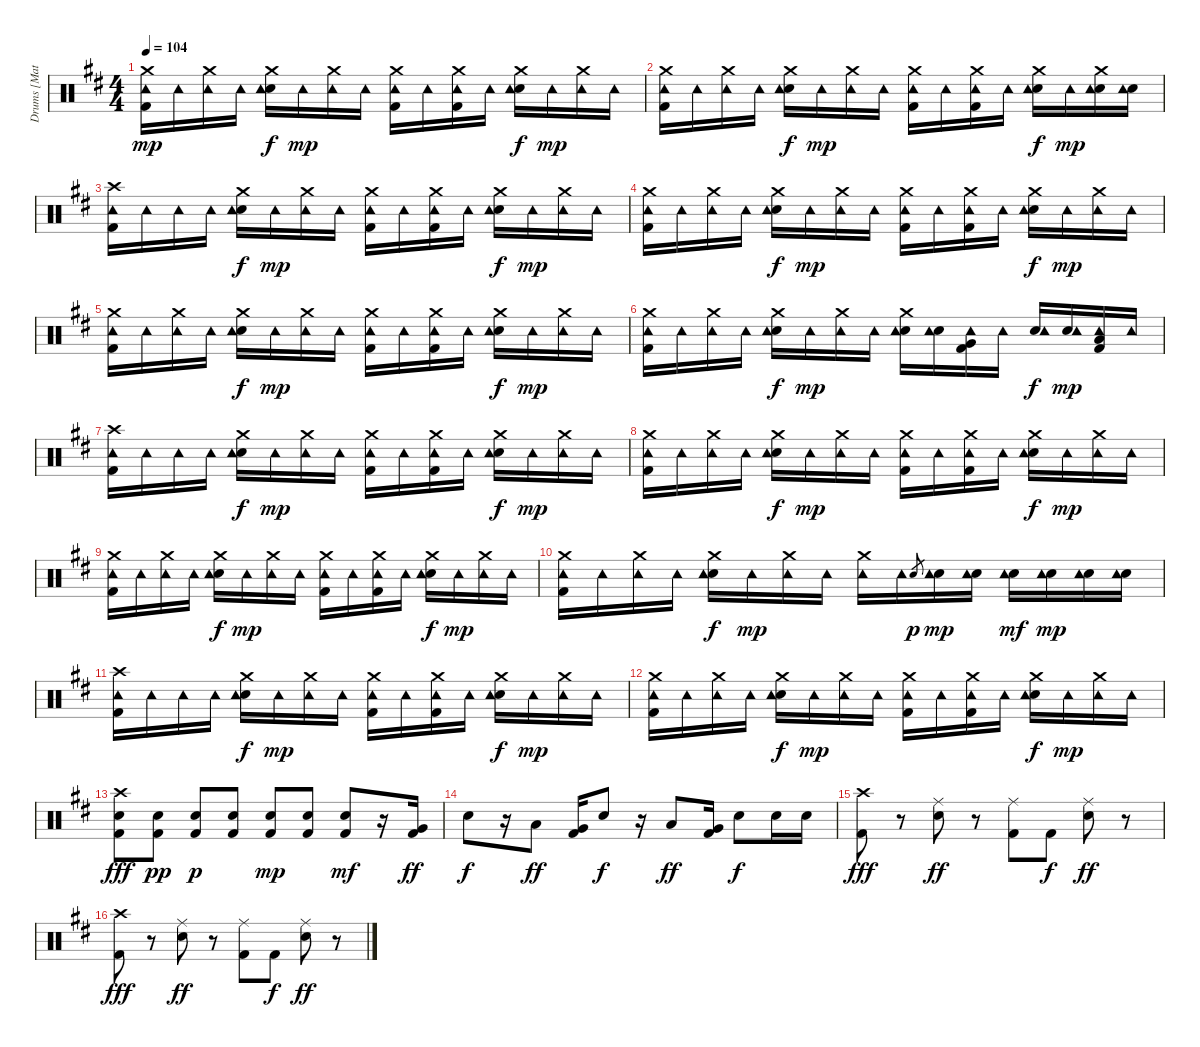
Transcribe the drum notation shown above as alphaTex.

\track ("Drums [Matt]" "Drums [Mat") {instrument percussion}
\staff {score}
\articulation defaults
\ts (4 4)
\tempo 104
\clef neutral
\ks d
("Crash medium (hit)" "Kick (hit) 2" "Tambourine (hit)").16{dy mp} "Tambourine (hit)".16 ("Crash medium (hit)" "Tambourine (hit)").16 "Tambourine (hit)".16 ("Crash medium (hit)" "Snare (hit) 2" "Tambourine (hit)").16{dy f} "Tambourine (hit)".16{dy mp} ("Crash medium (hit)" "Tambourine (hit)").16 "Tambourine (hit)".16 ("Crash medium (hit)" "Kick (hit) 2" "Tambourine (hit)").16 "Tambourine (hit)".16 ("Crash medium (hit)" "Kick (hit) 2" "Tambourine (hit)").16 "Tambourine (hit)".16 ("Crash medium (hit)" "Snare (hit) 2" "Tambourine (hit)").16{dy f} "Tambourine (hit)".16{dy mp} ("Crash medium (hit)" "Tambourine (hit)").16 "Tambourine (hit)".16 |
("Crash medium (hit)" "Kick (hit) 2" "Tambourine (hit)").16 "Tambourine (hit)".16 ("Crash medium (hit)" "Tambourine (hit)").16 "Tambourine (hit)".16 ("Crash medium (hit)" "Snare (hit) 2" "Tambourine (hit)").16{dy f} "Tambourine (hit)".16{dy mp} ("Crash medium (hit)" "Tambourine (hit)").16 "Tambourine (hit)".16 ("Crash medium (hit)" "Kick (hit) 2" "Tambourine (hit)").16 "Tambourine (hit)".16 ("Crash medium (hit)" "Kick (hit) 2" "Tambourine (hit)").16 "Tambourine (hit)".16 ("Crash medium (hit)" "Snare (hit) 2" "Tambourine (hit)").16{dy f} "Tambourine (hit)".16{dy mp} ("Crash medium (hit)" "Snare (hit) 2" "Tambourine (hit)").16 ("Snare (hit) 2" "Tambourine (hit)").16 |
("Kick (hit) 2" "Crash high (hit)" "Tambourine (hit)").16 "Tambourine (hit)".16 "Tambourine (hit)".16 "Tambourine (hit)".16 ("Crash medium (hit)" "Snare (hit) 2" "Tambourine (hit)").16{dy f} "Tambourine (hit)".16{dy mp} ("Crash medium (hit)" "Tambourine (hit)").16 "Tambourine (hit)".16 ("Crash medium (hit)" "Kick (hit) 2" "Tambourine (hit)").16 "Tambourine (hit)".16 ("Crash medium (hit)" "Kick (hit) 2" "Tambourine (hit)").16 "Tambourine (hit)".16 ("Crash medium (hit)" "Snare (hit) 2" "Tambourine (hit)").16{dy f} "Tambourine (hit)".16{dy mp} ("Crash medium (hit)" "Tambourine (hit)").16 "Tambourine (hit)".16 |
("Crash medium (hit)" "Kick (hit) 2" "Tambourine (hit)").16 "Tambourine (hit)".16 ("Crash medium (hit)" "Tambourine (hit)").16 "Tambourine (hit)".16 ("Crash medium (hit)" "Snare (hit) 2" "Tambourine (hit)").16{dy f} "Tambourine (hit)".16{dy mp} ("Crash medium (hit)" "Tambourine (hit)").16 "Tambourine (hit)".16 ("Crash medium (hit)" "Kick (hit) 2" "Tambourine (hit)").16 "Tambourine (hit)".16 ("Crash medium (hit)" "Kick (hit) 2" "Tambourine (hit)").16 "Tambourine (hit)".16 ("Crash medium (hit)" "Snare (hit) 2" "Tambourine (hit)").16{dy f} "Tambourine (hit)".16{dy mp} ("Crash medium (hit)" "Tambourine (hit)").16 "Tambourine (hit)".16 |
("Crash medium (hit)" "Kick (hit) 2" "Tambourine (hit)").16 "Tambourine (hit)".16 ("Crash medium (hit)" "Tambourine (hit)").16 "Tambourine (hit)".16 ("Crash medium (hit)" "Snare (hit) 2" "Tambourine (hit)").16{dy f} "Tambourine (hit)".16{dy mp} ("Crash medium (hit)" "Tambourine (hit)").16 "Tambourine (hit)".16 ("Crash medium (hit)" "Kick (hit) 2" "Tambourine (hit)").16 "Tambourine (hit)".16 ("Crash medium (hit)" "Kick (hit) 2" "Tambourine (hit)").16 "Tambourine (hit)".16 ("Crash medium (hit)" "Snare (hit) 2" "Tambourine (hit)").16{dy f} "Tambourine (hit)".16{dy mp} ("Crash medium (hit)" "Tambourine (hit)").16 "Tambourine (hit)".16 |
("Crash medium (hit)" "Kick (hit) 2" "Tambourine (hit)").16 "Tambourine (hit)".16 ("Crash medium (hit)" "Tambourine (hit)").16 "Tambourine (hit)".16 ("Crash medium (hit)" "Snare (hit) 2" "Tambourine (hit)").16{dy f} "Tambourine (hit)".16{dy mp} ("Crash medium (hit)" "Tambourine (hit)").16 "Tambourine (hit)".16 ("Crash medium (hit)" "Snare (hit) 2" "Tambourine (hit)").16 ("Snare (hit) 2" "Tambourine (hit)").16 ("Kick (hit) 2" "Tambourine (hit)" "Very Low Tom (hit)").16 "Tambourine (hit)".16 ("Snare (hit) 2" "Tambourine (hit)").16{dy f} ("Snare (hit) 2" "Tambourine (hit)").16{dy mp} ("Kick (hit) 2" "Tambourine (hit)" "Low Tom (hit)").16 "Tambourine (hit)".16 |
("Kick (hit) 2" "Crash high (hit)" "Tambourine (hit)").16 "Tambourine (hit)".16 "Tambourine (hit)".16 "Tambourine (hit)".16 ("Crash medium (hit)" "Snare (hit) 2" "Tambourine (hit)").16{dy f} "Tambourine (hit)".16{dy mp} ("Crash medium (hit)" "Tambourine (hit)").16 "Tambourine (hit)".16 ("Crash medium (hit)" "Kick (hit) 2" "Tambourine (hit)").16 "Tambourine (hit)".16 ("Crash medium (hit)" "Kick (hit) 2" "Tambourine (hit)").16 "Tambourine (hit)".16 ("Crash medium (hit)" "Snare (hit) 2" "Tambourine (hit)").16{dy f} "Tambourine (hit)".16{dy mp} ("Crash medium (hit)" "Tambourine (hit)").16 "Tambourine (hit)".16 |
("Crash medium (hit)" "Kick (hit) 2" "Tambourine (hit)").16 "Tambourine (hit)".16 ("Crash medium (hit)" "Tambourine (hit)").16 "Tambourine (hit)".16 ("Crash medium (hit)" "Snare (hit) 2" "Tambourine (hit)").16{dy f} "Tambourine (hit)".16{dy mp} ("Crash medium (hit)" "Tambourine (hit)").16 "Tambourine (hit)".16 ("Crash medium (hit)" "Kick (hit) 2" "Tambourine (hit)").16 "Tambourine (hit)".16 ("Crash medium (hit)" "Kick (hit) 2" "Tambourine (hit)").16 "Tambourine (hit)".16 ("Crash medium (hit)" "Snare (hit) 2" "Tambourine (hit)").16{dy f} "Tambourine (hit)".16{dy mp} ("Crash medium (hit)" "Tambourine (hit)").16 "Tambourine (hit)".16 |
("Crash medium (hit)" "Kick (hit) 2" "Tambourine (hit)").16 "Tambourine (hit)".16 ("Crash medium (hit)" "Tambourine (hit)").16 "Tambourine (hit)".16 ("Crash medium (hit)" "Snare (hit) 2" "Tambourine (hit)").16{dy f} "Tambourine (hit)".16{dy mp} ("Crash medium (hit)" "Tambourine (hit)").16 "Tambourine (hit)".16 ("Crash medium (hit)" "Kick (hit) 2" "Tambourine (hit)").16 "Tambourine (hit)".16 ("Crash medium (hit)" "Kick (hit) 2" "Tambourine (hit)").16 "Tambourine (hit)".16 ("Crash medium (hit)" "Snare (hit) 2" "Tambourine (hit)").16{dy f} "Tambourine (hit)".16{dy mp} ("Crash medium (hit)" "Tambourine (hit)").16 "Tambourine (hit)".16 |
("Crash medium (hit)" "Kick (hit) 2" "Tambourine (hit)").16 "Tambourine (hit)".16 ("Crash medium (hit)" "Tambourine (hit)").16 "Tambourine (hit)".16 ("Crash medium (hit)" "Snare (hit) 2" "Tambourine (hit)").16{dy f} "Tambourine (hit)".16{dy mp} ("Crash medium (hit)" "Tambourine (hit)").16 "Tambourine (hit)".16 ("Crash medium (hit)" "Tambourine (hit)").16 "Tambourine (hit)".16 "Snare (hit) 2".8{gr dy p} ("Snare (hit) 2" "Tambourine (hit)").16{dy mp} ("Snare (hit) 2" "Tambourine (hit)").16 ("Snare (hit) 2" "Tambourine (hit)").16{dy mf} ("Snare (hit) 2" "Tambourine (hit)").16{dy mp} ("Snare (hit) 2" "Tambourine (hit)").16 ("Snare (hit) 2" "Tambourine (hit)").16 |
("Kick (hit) 2" "Crash high (hit)" "Tambourine (hit)").16 "Tambourine (hit)".16 "Tambourine (hit)".16 "Tambourine (hit)".16 ("Crash medium (hit)" "Snare (hit) 2" "Tambourine (hit)").16{dy f} "Tambourine (hit)".16{dy mp} ("Crash medium (hit)" "Tambourine (hit)").16 "Tambourine (hit)".16 ("Crash medium (hit)" "Kick (hit) 2" "Tambourine (hit)").16 "Tambourine (hit)".16 ("Crash medium (hit)" "Kick (hit) 2" "Tambourine (hit)").16 "Tambourine (hit)".16 ("Crash medium (hit)" "Snare (hit) 2" "Tambourine (hit)").16{dy f} "Tambourine (hit)".16{dy mp} ("Crash medium (hit)" "Tambourine (hit)").16 "Tambourine (hit)".16 |
("Crash medium (hit)" "Kick (hit) 2" "Tambourine (hit)").16 "Tambourine (hit)".16 ("Crash medium (hit)" "Tambourine (hit)").16 "Tambourine (hit)".16 ("Crash medium (hit)" "Snare (hit) 2" "Tambourine (hit)").16{dy f} "Tambourine (hit)".16{dy mp} ("Crash medium (hit)" "Tambourine (hit)").16 "Tambourine (hit)".16 ("Crash medium (hit)" "Kick (hit) 2" "Tambourine (hit)").16 "Tambourine (hit)".16 ("Crash medium (hit)" "Kick (hit) 2" "Tambourine (hit)").16 "Tambourine (hit)".16 ("Crash medium (hit)" "Snare (hit) 2" "Tambourine (hit)").16{dy f} "Tambourine (hit)".16{dy mp} ("Crash medium (hit)" "Tambourine (hit)").16 "Tambourine (hit)".16 |
("Kick (hit) 2" "Snare (hit) 2" "Crash high (hit)").8{dy fff} ("Kick (hit) 2" "Snare (hit) 2").8{dy pp} ("Kick (hit) 2" "Snare (hit) 2").8{dy p} ("Kick (hit) 2" "Snare (hit) 2").8 ("Kick (hit) 2" "Snare (hit) 2").8{dy mp} ("Kick (hit) 2" "Snare (hit) 2").8 ("Kick (hit) 2" "Snare (hit) 2").8{dy mf} r.16 ("Kick (hit) 2" "Very Low Tom (hit)").16{dy ff} |
"Snare (hit) 2".8{dy f} r.16 "Low Tom (hit)".8{dy ff} ("Kick (hit) 2" "Very Low Tom (hit)").16 "Snare (hit) 2".8{dy f} r.16 "Low Tom (hit)".8{dy ff} ("Kick (hit) 2" "Very Low Tom (hit)").16 "Snare (hit) 2".8{dy f} "Snare (hit) 2".16 "Snare (hit) 2".16 |
("Kick (hit) 2" "Crash high (hit)").8{dy fff} r.8 ("Ride (middle)" "Snare (hit) 2").8{dy ff} r.8 ("Ride (middle)" "Kick (hit) 2").8 "Kick (hit) 2".8{dy f} ("Ride (middle)" "Snare (hit) 2").8{dy ff} r.8 |
("Kick (hit) 2" "Crash high (hit)").8{dy fff} r.8 ("Ride (middle)" "Snare (hit) 2").8{dy ff} r.8 ("Ride (middle)" "Kick (hit) 2").8 "Kick (hit) 2".8{dy f} ("Ride (middle)" "Snare (hit) 2").8{dy ff} r.8
